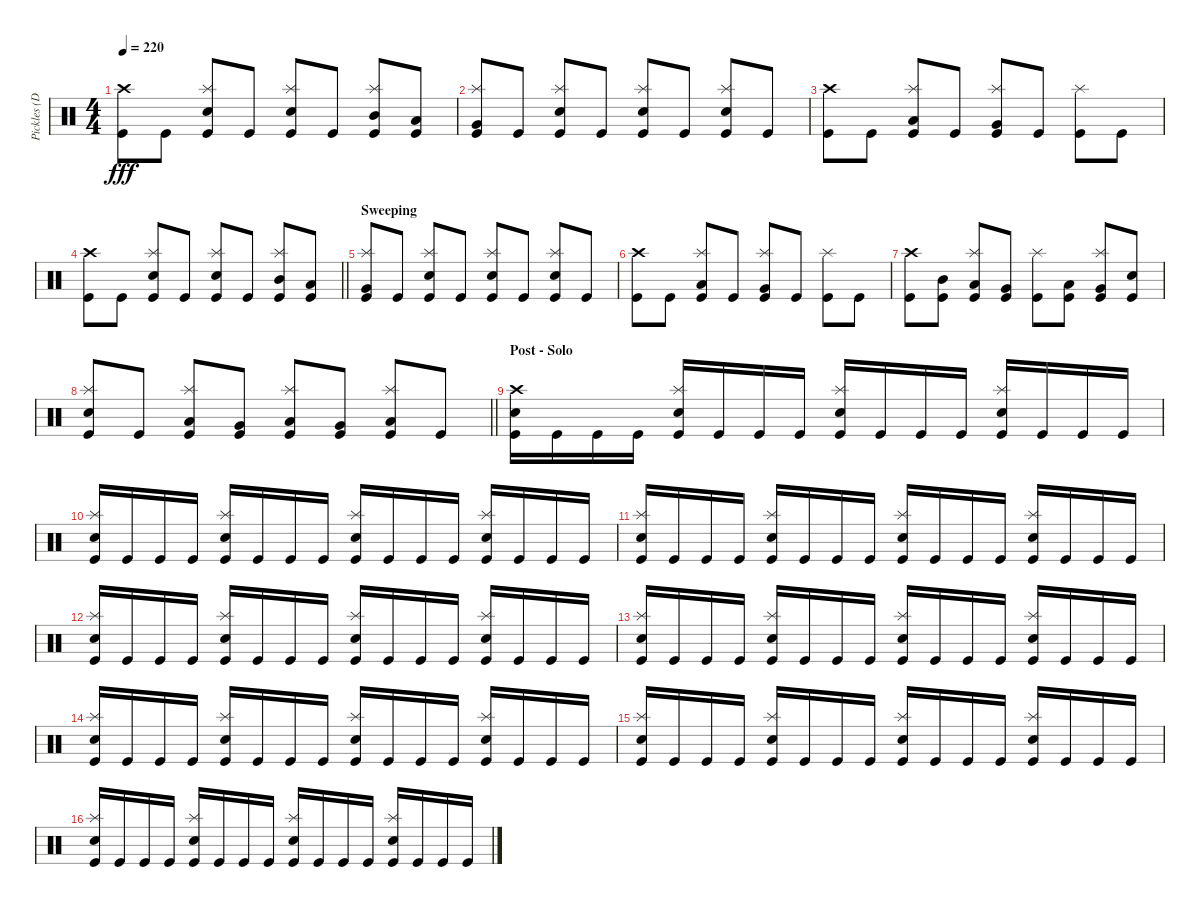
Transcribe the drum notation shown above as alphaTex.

\track ("Pickles (Drums)" "Pickles (D") {instrument percussion}
\staff {score}
\articulation defaults
\ts (4 4)
\tempo 220
\clef neutral
\ks c
("Crash high (hit)" "Kick (hit)").8{dy fff} "Kick (hit)".8 ("Splash (hit)" "Electric Snare (hit)" "Kick (hit)").8 "Kick (hit)".8 ("Splash (hit)" "Electric Snare (hit)" "Kick (hit)").8 "Kick (hit)".8 ("Splash (hit)" "Mid Tom (hit)" "Kick (hit)").8 ("Low Tom (hit)" "Kick (hit)").8 |
("Splash (hit)" "Very Low Tom (hit)" "Kick (hit)").8 "Kick (hit)".8 ("Splash (hit)" "Electric Snare (hit)" "Kick (hit)").8 "Kick (hit)".8 ("Splash (hit)" "Electric Snare (hit)" "Kick (hit)").8 "Kick (hit)".8 ("Splash (hit)" "Electric Snare (hit)" "Kick (hit)").8 "Kick (hit)".8 |
("Crash high (hit)" "Kick (hit)").8 "Kick (hit)".8 ("Splash (hit)" "Low Tom (hit)" "Kick (hit)").8 "Kick (hit)".8 ("Splash (hit)" "Very Low Tom (hit)" "Kick (hit)").8 "Kick (hit)".8 ("Splash (hit)" "Kick (hit)").8 "Kick (hit)".8 |
\barLineRight lightlight
("Crash high (hit)" "Kick (hit)").8 "Kick (hit)".8 ("Splash (hit)" "Electric Snare (hit)" "Kick (hit)").8 "Kick (hit)".8 ("Splash (hit)" "Electric Snare (hit)" "Kick (hit)").8 "Kick (hit)".8 ("Splash (hit)" "Mid Tom (hit)" "Kick (hit)").8 ("Low Tom (hit)" "Kick (hit)").8 |
\section ("" "Sweeping")
("Splash (hit)" "Very Low Tom (hit)" "Kick (hit)").8 "Kick (hit)".8 ("Splash (hit)" "Electric Snare (hit)" "Kick (hit)").8 "Kick (hit)".8 ("Splash (hit)" "Electric Snare (hit)" "Kick (hit)").8 "Kick (hit)".8 ("Splash (hit)" "Electric Snare (hit)" "Kick (hit)").8 "Kick (hit)".8 |
("Crash high (hit)" "Kick (hit)").8 "Kick (hit)".8 ("Splash (hit)" "Low Tom (hit)" "Kick (hit)").8 "Kick (hit)".8 ("Splash (hit)" "Very Low Tom (hit)" "Kick (hit)").8 "Kick (hit)".8 ("Splash (hit)" "Kick (hit)").8 "Kick (hit)".8 |
("Crash high (hit)" "Kick (hit)").8 ("Mid Tom (hit)" "Kick (hit)").8 ("Splash (hit)" "Low Tom (hit)" "Kick (hit)").8 ("Very Low Tom (hit)" "Kick (hit)").8 ("Splash (hit)" "Kick (hit)").8 ("Low Tom (hit)" "Kick (hit)").8 ("Splash (hit)" "Very Low Tom (hit)" "Kick (hit)").8 ("Electric Snare (hit)" "Kick (hit)").8 |
\barLineRight lightlight
("Splash (hit)" "Electric Snare (hit)" "Kick (hit)").8 "Kick (hit)".8 ("Splash (hit)" "Low Tom (hit)" "Kick (hit)").8 ("Very Low Tom (hit)" "Kick (hit)").8 ("Splash (hit)" "Low Floor Tom (hit)" "Kick (hit)").8 ("Very Low Tom (hit)" "Kick (hit)").8 ("Splash (hit)" "Low Floor Tom (hit)" "Kick (hit)").8 "Kick (hit)".8 |
\section ("" "Post - Solo")
("Crash high (hit)" "Electric Snare (hit)" "Kick (hit)").16 "Kick (hit)".16 "Kick (hit)".16 "Kick (hit)".16 ("Splash (hit)" "Electric Snare (hit)" "Kick (hit)").16 "Kick (hit)".16 "Kick (hit)".16 "Kick (hit)".16 ("Splash (hit)" "Electric Snare (hit)" "Kick (hit)").16 "Kick (hit)".16 "Kick (hit)".16 "Kick (hit)".16 ("Splash (hit)" "Electric Snare (hit)" "Kick (hit)").16 "Kick (hit)".16 "Kick (hit)".16 "Kick (hit)".16 |
("Splash (hit)" "Electric Snare (hit)" "Kick (hit)").16 "Kick (hit)".16 "Kick (hit)".16 "Kick (hit)".16 ("Splash (hit)" "Electric Snare (hit)" "Kick (hit)").16 "Kick (hit)".16 "Kick (hit)".16 "Kick (hit)".16 ("Splash (hit)" "Electric Snare (hit)" "Kick (hit)").16 "Kick (hit)".16 "Kick (hit)".16 "Kick (hit)".16 ("Splash (hit)" "Electric Snare (hit)" "Kick (hit)").16 "Kick (hit)".16 "Kick (hit)".16 "Kick (hit)".16 |
("Splash (hit)" "Electric Snare (hit)" "Kick (hit)").16 "Kick (hit)".16 "Kick (hit)".16 "Kick (hit)".16 ("Splash (hit)" "Electric Snare (hit)" "Kick (hit)").16 "Kick (hit)".16 "Kick (hit)".16 "Kick (hit)".16 ("Splash (hit)" "Electric Snare (hit)" "Kick (hit)").16 "Kick (hit)".16 "Kick (hit)".16 "Kick (hit)".16 ("Splash (hit)" "Electric Snare (hit)" "Kick (hit)").16 "Kick (hit)".16 "Kick (hit)".16 "Kick (hit)".16 |
("Splash (hit)" "Electric Snare (hit)" "Kick (hit)").16 "Kick (hit)".16 "Kick (hit)".16 "Kick (hit)".16 ("Splash (hit)" "Electric Snare (hit)" "Kick (hit)").16 "Kick (hit)".16 "Kick (hit)".16 "Kick (hit)".16 ("Splash (hit)" "Electric Snare (hit)" "Kick (hit)").16 "Kick (hit)".16 "Kick (hit)".16 "Kick (hit)".16 ("Splash (hit)" "Electric Snare (hit)" "Kick (hit)").16 "Kick (hit)".16 "Kick (hit)".16 "Kick (hit)".16 |
("Splash (hit)" "Electric Snare (hit)" "Kick (hit)").16 "Kick (hit)".16 "Kick (hit)".16 "Kick (hit)".16 ("Splash (hit)" "Electric Snare (hit)" "Kick (hit)").16 "Kick (hit)".16 "Kick (hit)".16 "Kick (hit)".16 ("Splash (hit)" "Electric Snare (hit)" "Kick (hit)").16 "Kick (hit)".16 "Kick (hit)".16 "Kick (hit)".16 ("Splash (hit)" "Electric Snare (hit)" "Kick (hit)").16 "Kick (hit)".16 "Kick (hit)".16 "Kick (hit)".16 |
("Splash (hit)" "Electric Snare (hit)" "Kick (hit)").16 "Kick (hit)".16 "Kick (hit)".16 "Kick (hit)".16 ("Splash (hit)" "Electric Snare (hit)" "Kick (hit)").16 "Kick (hit)".16 "Kick (hit)".16 "Kick (hit)".16 ("Splash (hit)" "Electric Snare (hit)" "Kick (hit)").16 "Kick (hit)".16 "Kick (hit)".16 "Kick (hit)".16 ("Splash (hit)" "Electric Snare (hit)" "Kick (hit)").16 "Kick (hit)".16 "Kick (hit)".16 "Kick (hit)".16 |
("Splash (hit)" "Electric Snare (hit)" "Kick (hit)").16 "Kick (hit)".16 "Kick (hit)".16 "Kick (hit)".16 ("Splash (hit)" "Electric Snare (hit)" "Kick (hit)").16 "Kick (hit)".16 "Kick (hit)".16 "Kick (hit)".16 ("Splash (hit)" "Electric Snare (hit)" "Kick (hit)").16 "Kick (hit)".16 "Kick (hit)".16 "Kick (hit)".16 ("Splash (hit)" "Electric Snare (hit)" "Kick (hit)").16 "Kick (hit)".16 "Kick (hit)".16 "Kick (hit)".16 |
("Splash (hit)" "Electric Snare (hit)" "Kick (hit)").16 "Kick (hit)".16 "Kick (hit)".16 "Kick (hit)".16 ("Splash (hit)" "Electric Snare (hit)" "Kick (hit)").16 "Kick (hit)".16 "Kick (hit)".16 "Kick (hit)".16 ("Splash (hit)" "Electric Snare (hit)" "Kick (hit)").16 "Kick (hit)".16 "Kick (hit)".16 "Kick (hit)".16 ("Splash (hit)" "Electric Snare (hit)" "Kick (hit)").16 "Kick (hit)".16 "Kick (hit)".16 "Kick (hit)".16
